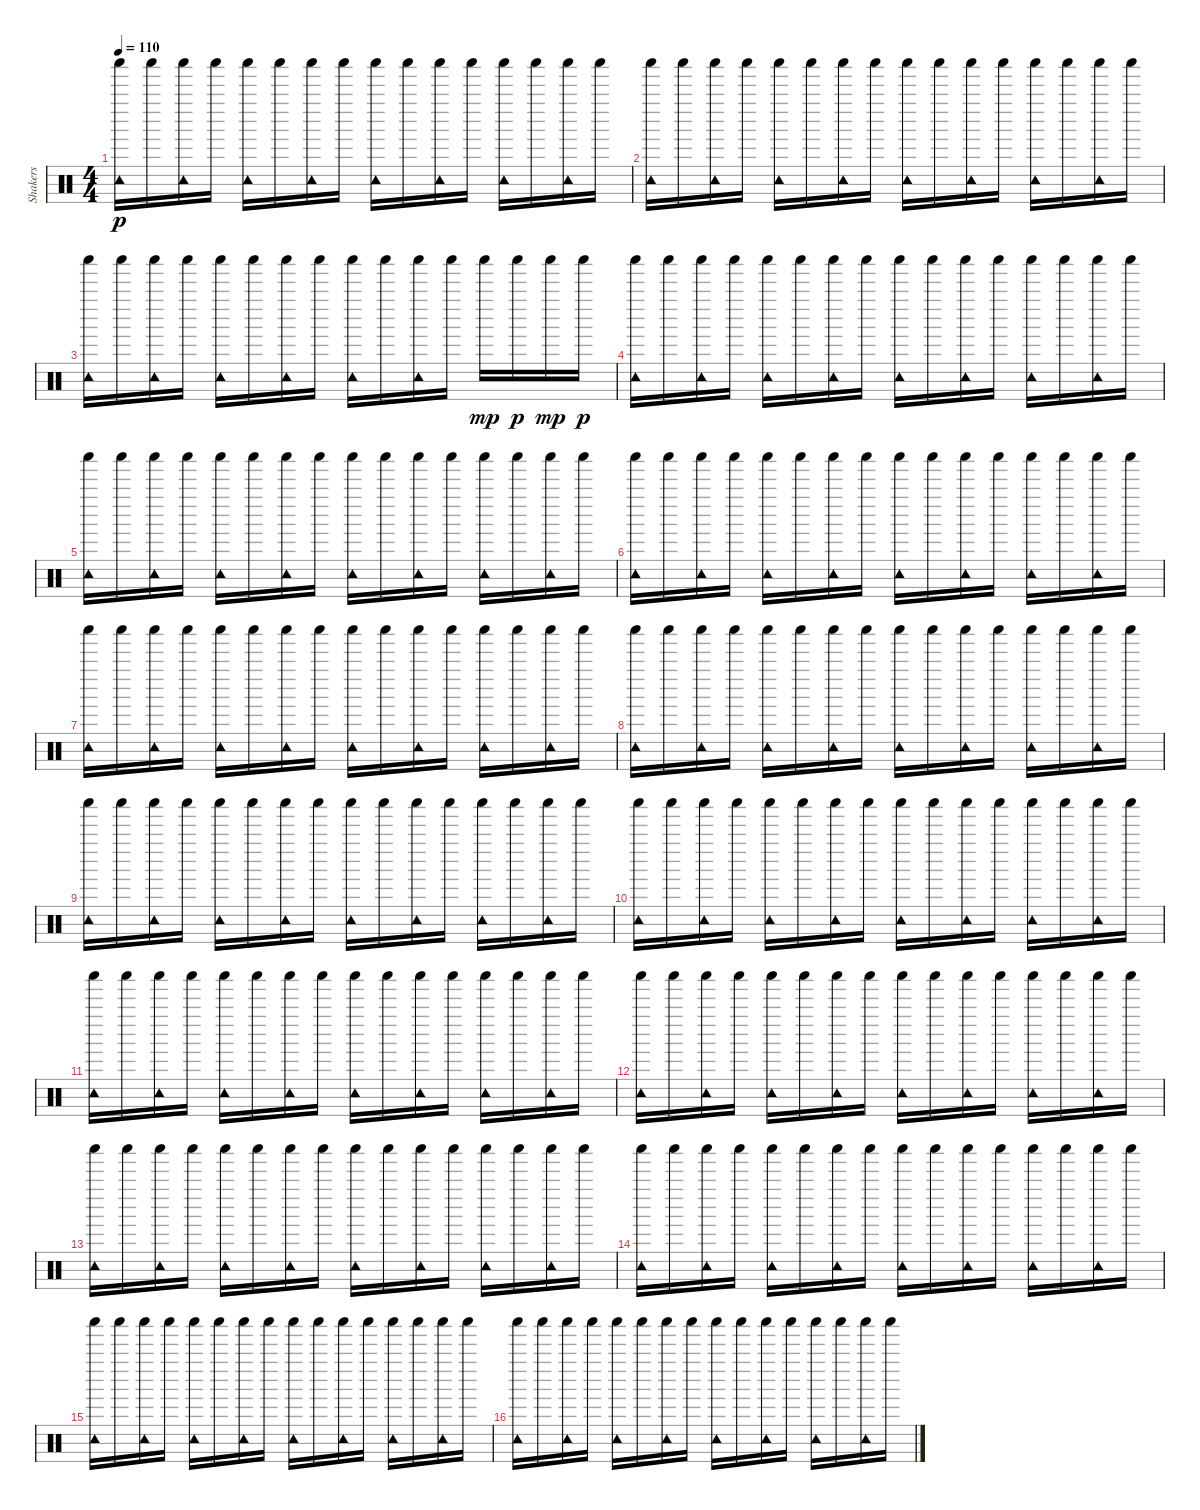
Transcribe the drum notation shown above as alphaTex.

\track ("Shakers" "Shakers") {instrument percussion}
\staff {score}
\articulation defaults
\ts (4 4)
\tempo 110
\clef neutral
\ks c
("Shaker (hit)" "Tambourine (hit)").16{dy p} "Shaker (hit)".16 ("Shaker (hit)" "Tambourine (hit)").16 "Shaker (hit)".16 ("Shaker (hit)" "Tambourine (hit)").16 "Shaker (hit)".16 ("Shaker (hit)" "Tambourine (hit)").16 "Shaker (hit)".16 ("Shaker (hit)" "Tambourine (hit)").16 "Shaker (hit)".16 ("Shaker (hit)" "Tambourine (hit)").16 "Shaker (hit)".16 ("Shaker (hit)" "Tambourine (hit)").16 "Shaker (hit)".16 ("Shaker (hit)" "Tambourine (hit)").16 "Shaker (hit)".16 |
("Shaker (hit)" "Tambourine (hit)").16 "Shaker (hit)".16 ("Shaker (hit)" "Tambourine (hit)").16 "Shaker (hit)".16 ("Shaker (hit)" "Tambourine (hit)").16 "Shaker (hit)".16 ("Shaker (hit)" "Tambourine (hit)").16 "Shaker (hit)".16 ("Shaker (hit)" "Tambourine (hit)").16 "Shaker (hit)".16 ("Shaker (hit)" "Tambourine (hit)").16 "Shaker (hit)".16 ("Shaker (hit)" "Tambourine (hit)").16 "Shaker (hit)".16 ("Shaker (hit)" "Tambourine (hit)").16 "Shaker (hit)".16 |
("Shaker (hit)" "Tambourine (hit)").16 "Shaker (hit)".16 ("Shaker (hit)" "Tambourine (hit)").16 "Shaker (hit)".16 ("Shaker (hit)" "Tambourine (hit)").16 "Shaker (hit)".16 ("Shaker (hit)" "Tambourine (hit)").16 "Shaker (hit)".16 ("Shaker (hit)" "Tambourine (hit)").16 "Shaker (hit)".16 ("Shaker (hit)" "Tambourine (hit)").16 "Shaker (hit)".16 "Shaker (hit)".16{dy mp} "Shaker (hit)".16{dy p} "Shaker (hit)".16{dy mp} "Shaker (hit)".16{dy p} |
("Shaker (hit)" "Tambourine (hit)").16 "Shaker (hit)".16 ("Shaker (hit)" "Tambourine (hit)").16 "Shaker (hit)".16 ("Shaker (hit)" "Tambourine (hit)").16 "Shaker (hit)".16 ("Shaker (hit)" "Tambourine (hit)").16 "Shaker (hit)".16 ("Shaker (hit)" "Tambourine (hit)").16 "Shaker (hit)".16 ("Shaker (hit)" "Tambourine (hit)").16 "Shaker (hit)".16 ("Shaker (hit)" "Tambourine (hit)").16 "Shaker (hit)".16 ("Shaker (hit)" "Tambourine (hit)").16 "Shaker (hit)".16 |
("Shaker (hit)" "Tambourine (hit)").16 "Shaker (hit)".16 ("Shaker (hit)" "Tambourine (hit)").16 "Shaker (hit)".16 ("Shaker (hit)" "Tambourine (hit)").16 "Shaker (hit)".16 ("Shaker (hit)" "Tambourine (hit)").16 "Shaker (hit)".16 ("Shaker (hit)" "Tambourine (hit)").16 "Shaker (hit)".16 ("Shaker (hit)" "Tambourine (hit)").16 "Shaker (hit)".16 ("Shaker (hit)" "Tambourine (hit)").16 "Shaker (hit)".16 ("Shaker (hit)" "Tambourine (hit)").16 "Shaker (hit)".16 |
("Shaker (hit)" "Tambourine (hit)").16 "Shaker (hit)".16 ("Shaker (hit)" "Tambourine (hit)").16 "Shaker (hit)".16 ("Shaker (hit)" "Tambourine (hit)").16 "Shaker (hit)".16 ("Shaker (hit)" "Tambourine (hit)").16 "Shaker (hit)".16 ("Shaker (hit)" "Tambourine (hit)").16 "Shaker (hit)".16 ("Shaker (hit)" "Tambourine (hit)").16 "Shaker (hit)".16 ("Shaker (hit)" "Tambourine (hit)").16 "Shaker (hit)".16 ("Shaker (hit)" "Tambourine (hit)").16 "Shaker (hit)".16 |
("Shaker (hit)" "Tambourine (hit)").16 "Shaker (hit)".16 ("Shaker (hit)" "Tambourine (hit)").16 "Shaker (hit)".16 ("Shaker (hit)" "Tambourine (hit)").16 "Shaker (hit)".16 ("Shaker (hit)" "Tambourine (hit)").16 "Shaker (hit)".16 ("Shaker (hit)" "Tambourine (hit)").16 "Shaker (hit)".16 ("Shaker (hit)" "Tambourine (hit)").16 "Shaker (hit)".16 ("Shaker (hit)" "Tambourine (hit)").16 "Shaker (hit)".16 ("Shaker (hit)" "Tambourine (hit)").16 "Shaker (hit)".16 |
("Shaker (hit)" "Tambourine (hit)").16 "Shaker (hit)".16 ("Shaker (hit)" "Tambourine (hit)").16 "Shaker (hit)".16 ("Shaker (hit)" "Tambourine (hit)").16 "Shaker (hit)".16 ("Shaker (hit)" "Tambourine (hit)").16 "Shaker (hit)".16 ("Shaker (hit)" "Tambourine (hit)").16 "Shaker (hit)".16 ("Shaker (hit)" "Tambourine (hit)").16 "Shaker (hit)".16 ("Shaker (hit)" "Tambourine (hit)").16 "Shaker (hit)".16 ("Shaker (hit)" "Tambourine (hit)").16 "Shaker (hit)".16 |
("Shaker (hit)" "Tambourine (hit)").16 "Shaker (hit)".16 ("Shaker (hit)" "Tambourine (hit)").16 "Shaker (hit)".16 ("Shaker (hit)" "Tambourine (hit)").16 "Shaker (hit)".16 ("Shaker (hit)" "Tambourine (hit)").16 "Shaker (hit)".16 ("Shaker (hit)" "Tambourine (hit)").16 "Shaker (hit)".16 ("Shaker (hit)" "Tambourine (hit)").16 "Shaker (hit)".16 ("Shaker (hit)" "Tambourine (hit)").16 "Shaker (hit)".16 ("Shaker (hit)" "Tambourine (hit)").16 "Shaker (hit)".16 |
("Shaker (hit)" "Tambourine (hit)").16 "Shaker (hit)".16 ("Shaker (hit)" "Tambourine (hit)").16 "Shaker (hit)".16 ("Shaker (hit)" "Tambourine (hit)").16 "Shaker (hit)".16 ("Shaker (hit)" "Tambourine (hit)").16 "Shaker (hit)".16 ("Shaker (hit)" "Tambourine (hit)").16 "Shaker (hit)".16 ("Shaker (hit)" "Tambourine (hit)").16 "Shaker (hit)".16 ("Shaker (hit)" "Tambourine (hit)").16 "Shaker (hit)".16 ("Shaker (hit)" "Tambourine (hit)").16 "Shaker (hit)".16 |
("Shaker (hit)" "Tambourine (hit)").16 "Shaker (hit)".16 ("Shaker (hit)" "Tambourine (hit)").16 "Shaker (hit)".16 ("Shaker (hit)" "Tambourine (hit)").16 "Shaker (hit)".16 ("Shaker (hit)" "Tambourine (hit)").16 "Shaker (hit)".16 ("Shaker (hit)" "Tambourine (hit)").16 "Shaker (hit)".16 ("Shaker (hit)" "Tambourine (hit)").16 "Shaker (hit)".16 ("Shaker (hit)" "Tambourine (hit)").16 "Shaker (hit)".16 ("Shaker (hit)" "Tambourine (hit)").16 "Shaker (hit)".16 |
("Shaker (hit)" "Tambourine (hit)").16 "Shaker (hit)".16 ("Shaker (hit)" "Tambourine (hit)").16 "Shaker (hit)".16 ("Shaker (hit)" "Tambourine (hit)").16 "Shaker (hit)".16 ("Shaker (hit)" "Tambourine (hit)").16 "Shaker (hit)".16 ("Shaker (hit)" "Tambourine (hit)").16 "Shaker (hit)".16 ("Shaker (hit)" "Tambourine (hit)").16 "Shaker (hit)".16 ("Shaker (hit)" "Tambourine (hit)").16 "Shaker (hit)".16 ("Shaker (hit)" "Tambourine (hit)").16 "Shaker (hit)".16 |
("Shaker (hit)" "Tambourine (hit)").16 "Shaker (hit)".16 ("Shaker (hit)" "Tambourine (hit)").16 "Shaker (hit)".16 ("Shaker (hit)" "Tambourine (hit)").16 "Shaker (hit)".16 ("Shaker (hit)" "Tambourine (hit)").16 "Shaker (hit)".16 ("Shaker (hit)" "Tambourine (hit)").16 "Shaker (hit)".16 ("Shaker (hit)" "Tambourine (hit)").16 "Shaker (hit)".16 ("Shaker (hit)" "Tambourine (hit)").16 "Shaker (hit)".16 ("Shaker (hit)" "Tambourine (hit)").16 "Shaker (hit)".16 |
("Shaker (hit)" "Tambourine (hit)").16 "Shaker (hit)".16 ("Shaker (hit)" "Tambourine (hit)").16 "Shaker (hit)".16 ("Shaker (hit)" "Tambourine (hit)").16 "Shaker (hit)".16 ("Shaker (hit)" "Tambourine (hit)").16 "Shaker (hit)".16 ("Shaker (hit)" "Tambourine (hit)").16 "Shaker (hit)".16 ("Shaker (hit)" "Tambourine (hit)").16 "Shaker (hit)".16 ("Shaker (hit)" "Tambourine (hit)").16 "Shaker (hit)".16 ("Shaker (hit)" "Tambourine (hit)").16 "Shaker (hit)".16 |
("Shaker (hit)" "Tambourine (hit)").16 "Shaker (hit)".16 ("Shaker (hit)" "Tambourine (hit)").16 "Shaker (hit)".16 ("Shaker (hit)" "Tambourine (hit)").16 "Shaker (hit)".16 ("Shaker (hit)" "Tambourine (hit)").16 "Shaker (hit)".16 ("Shaker (hit)" "Tambourine (hit)").16 "Shaker (hit)".16 ("Shaker (hit)" "Tambourine (hit)").16 "Shaker (hit)".16 ("Shaker (hit)" "Tambourine (hit)").16 "Shaker (hit)".16 ("Shaker (hit)" "Tambourine (hit)").16 "Shaker (hit)".16 |
("Shaker (hit)" "Tambourine (hit)").16 "Shaker (hit)".16 ("Shaker (hit)" "Tambourine (hit)").16 "Shaker (hit)".16 ("Shaker (hit)" "Tambourine (hit)").16 "Shaker (hit)".16 ("Shaker (hit)" "Tambourine (hit)").16 "Shaker (hit)".16 ("Shaker (hit)" "Tambourine (hit)").16 "Shaker (hit)".16 ("Shaker (hit)" "Tambourine (hit)").16 "Shaker (hit)".16 ("Shaker (hit)" "Tambourine (hit)").16 "Shaker (hit)".16 ("Shaker (hit)" "Tambourine (hit)").16 "Shaker (hit)".16
